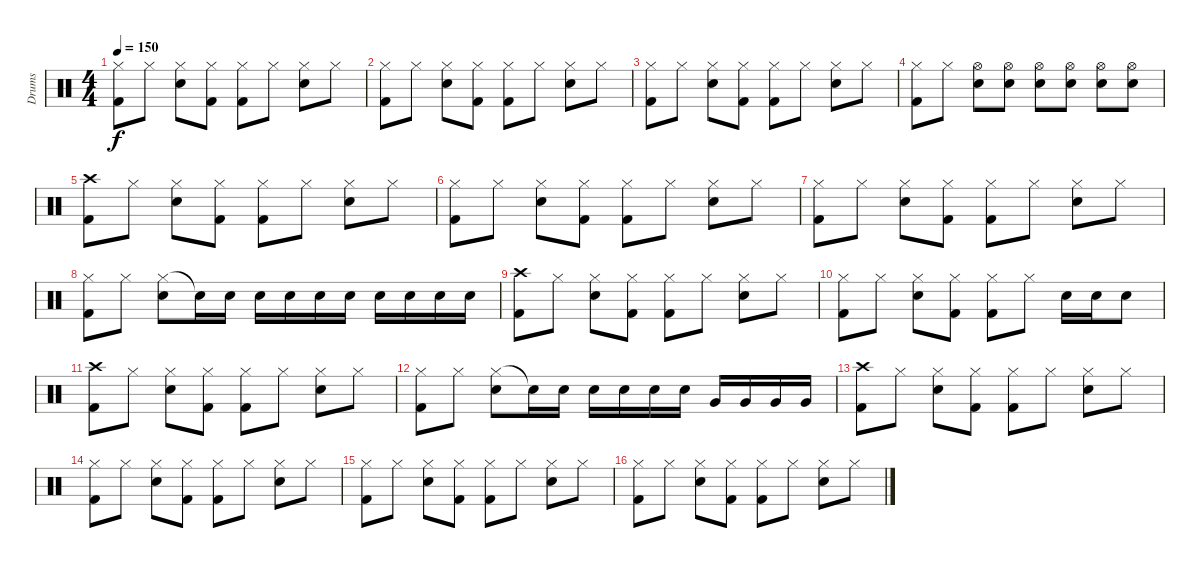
\track ("Drums" "Drums") {instrument percussion}
\staff {score}
\articulation defaults
\ts (4 4)
\tempo 150
\clef neutral
\ks c
("Hi-Hat (closed)" "Kick (hit) 2").8{dy f} "Hi-Hat (closed)".8 ("Hi-Hat (closed)" "Snare (hit) 2").8 ("Hi-Hat (closed)" "Kick (hit) 2").8 ("Hi-Hat (closed)" "Kick (hit) 2").8 "Hi-Hat (closed)".8 ("Hi-Hat (closed)" "Snare (hit) 2").8 "Hi-Hat (closed)".8 |
("Hi-Hat (closed)" "Kick (hit) 2").8 "Hi-Hat (closed)".8 ("Hi-Hat (closed)" "Snare (hit) 2").8 ("Hi-Hat (closed)" "Kick (hit) 2").8 ("Hi-Hat (closed)" "Kick (hit) 2").8 "Hi-Hat (closed)".8 ("Hi-Hat (closed)" "Snare (hit) 2").8 "Hi-Hat (closed)".8 |
("Hi-Hat (closed)" "Kick (hit) 2").8 "Hi-Hat (closed)".8 ("Hi-Hat (closed)" "Snare (hit) 2").8 ("Hi-Hat (closed)" "Kick (hit) 2").8 ("Hi-Hat (closed)" "Kick (hit) 2").8 "Hi-Hat (closed)".8 ("Hi-Hat (closed)" "Snare (hit) 2").8 "Hi-Hat (closed)".8 |
("Hi-Hat (closed)" "Kick (hit) 2").8 "Hi-Hat (closed)".8 ("Hi-Hat (open)" "Snare (hit) 2").8 ("Hi-Hat (open)" "Snare (hit) 2").8 ("Hi-Hat (open)" "Snare (hit) 2").8 ("Hi-Hat (open)" "Snare (hit) 2").8 ("Hi-Hat (open)" "Snare (hit) 2").8 ("Hi-Hat (open)" "Snare (hit) 2").8 |
("Crash high (hit)" "Kick (hit) 2").8 "Hi-Hat (closed)".8 ("Hi-Hat (closed)" "Snare (hit) 2").8 ("Hi-Hat (closed)" "Kick (hit) 2").8 ("Hi-Hat (closed)" "Kick (hit) 2").8 "Hi-Hat (closed)".8 ("Hi-Hat (closed)" "Snare (hit) 2").8 "Hi-Hat (closed)".8 |
("Hi-Hat (closed)" "Kick (hit) 2").8 "Hi-Hat (closed)".8 ("Hi-Hat (closed)" "Snare (hit) 2").8 ("Hi-Hat (closed)" "Kick (hit) 2").8 ("Hi-Hat (closed)" "Kick (hit) 2").8 "Hi-Hat (closed)".8 ("Hi-Hat (closed)" "Snare (hit) 2").8 "Hi-Hat (closed)".8 |
("Hi-Hat (closed)" "Kick (hit) 2").8 "Hi-Hat (closed)".8 ("Hi-Hat (closed)" "Snare (hit) 2").8 ("Hi-Hat (closed)" "Kick (hit) 2").8 ("Hi-Hat (closed)" "Kick (hit) 2").8 "Hi-Hat (closed)".8 ("Hi-Hat (closed)" "Snare (hit) 2").8 "Hi-Hat (closed)".8 |
("Hi-Hat (closed)" "Kick (hit) 2").8 "Hi-Hat (closed)".8 ("Hi-Hat (closed)" "Snare (hit) 2").8 "Snare (hit)"{t}.16 "Snare (hit) 2".16 "Snare (hit) 2".16 "Snare (hit) 2".16 "Snare (hit) 2".16 "Snare (hit) 2".16 "Snare (hit) 2".16 "Snare (hit) 2".16 "Snare (hit) 2".16 "Snare (hit) 2".16 |
("Crash high (hit)" "Kick (hit) 2").8 "Hi-Hat (closed)".8 ("Hi-Hat (closed)" "Snare (hit) 2").8 ("Hi-Hat (closed)" "Kick (hit) 2").8 ("Hi-Hat (closed)" "Kick (hit) 2").8 "Hi-Hat (closed)".8 ("Hi-Hat (closed)" "Snare (hit) 2").8 "Hi-Hat (closed)".8 |
("Hi-Hat (closed)" "Kick (hit) 2").8 "Hi-Hat (closed)".8 ("Hi-Hat (closed)" "Snare (hit) 2").8 ("Hi-Hat (closed)" "Kick (hit) 2").8 ("Hi-Hat (closed)" "Kick (hit) 2").8 "Hi-Hat (closed)".8 "Snare (hit) 2".16 "Snare (hit) 2".16 "Snare (hit) 2".8 |
("Crash high (hit)" "Kick (hit) 2").8 "Hi-Hat (closed)".8 ("Hi-Hat (closed)" "Snare (hit) 2").8 ("Hi-Hat (closed)" "Kick (hit) 2").8 ("Hi-Hat (closed)" "Kick (hit) 2").8 "Hi-Hat (closed)".8 ("Hi-Hat (closed)" "Snare (hit) 2").8 "Hi-Hat (closed)".8 |
("Hi-Hat (closed)" "Kick (hit) 2").8 "Hi-Hat (closed)".8 ("Hi-Hat (closed)" "Snare (hit) 2").8 "Snare (hit)"{t}.16 "Snare (hit) 2".16 "Snare (hit) 2".16 "Snare (hit) 2".16 "Snare (hit) 2".16 "Snare (hit) 2".16 "Very Low Tom (hit)".16 "Very Low Tom (hit)".16 "Very Low Tom (hit)".16 "Very Low Tom (hit)".16 |
("Crash high (hit)" "Kick (hit) 2").8 "Hi-Hat (closed)".8 ("Hi-Hat (closed)" "Snare (hit) 2").8 ("Hi-Hat (closed)" "Kick (hit) 2").8 ("Hi-Hat (closed)" "Kick (hit) 2").8 "Hi-Hat (closed)".8 ("Hi-Hat (closed)" "Snare (hit) 2").8 "Hi-Hat (closed)".8 |
("Hi-Hat (closed)" "Kick (hit) 2").8 "Hi-Hat (closed)".8 ("Hi-Hat (closed)" "Snare (hit) 2").8 ("Hi-Hat (closed)" "Kick (hit) 2").8 ("Hi-Hat (closed)" "Kick (hit) 2").8 "Hi-Hat (closed)".8 ("Hi-Hat (closed)" "Snare (hit) 2").8 "Hi-Hat (closed)".8 |
("Hi-Hat (closed)" "Kick (hit) 2").8 "Hi-Hat (closed)".8 ("Hi-Hat (closed)" "Snare (hit) 2").8 ("Hi-Hat (closed)" "Kick (hit) 2").8 ("Hi-Hat (closed)" "Kick (hit) 2").8 "Hi-Hat (closed)".8 ("Hi-Hat (closed)" "Snare (hit) 2").8 "Hi-Hat (closed)".8 |
("Hi-Hat (closed)" "Kick (hit) 2").8 "Hi-Hat (closed)".8 ("Hi-Hat (closed)" "Snare (hit) 2").8 ("Hi-Hat (closed)" "Kick (hit) 2").8 ("Hi-Hat (closed)" "Kick (hit) 2").8 "Hi-Hat (closed)".8 ("Hi-Hat (closed)" "Snare (hit) 2").8 "Hi-Hat (closed)".8
